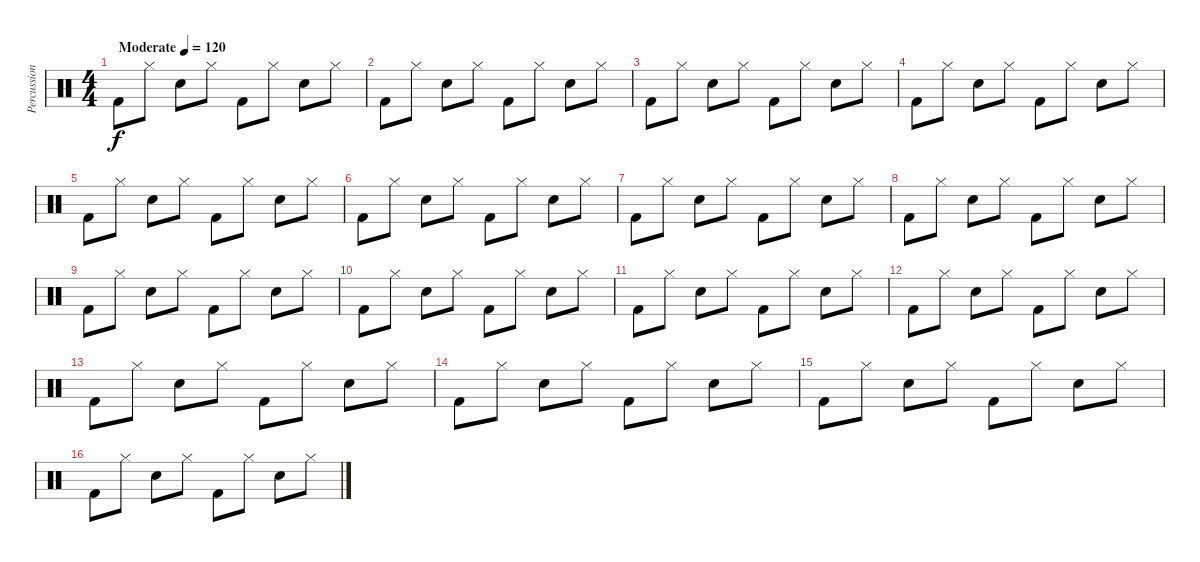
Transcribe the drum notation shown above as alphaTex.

\track ("Percussion" "Percussion") {instrument percussion}
\staff {score}
\articulation defaults
\ts (4 4)
\tempo (120 "Moderate")
\clef neutral
\ks c "Kick (hit) 2".8{dy f} "Hi-Hat (closed)".8 "Snare (hit) 2".8 "Hi-Hat (closed)".8 "Kick (hit) 2".8 "Hi-Hat (closed)".8 "Snare (hit) 2".8 "Hi-Hat (closed)".8
|
"Kick (hit) 2".8 "Hi-Hat (closed)".8 "Snare (hit) 2".8 "Hi-Hat (closed)".8 "Kick (hit) 2".8 "Hi-Hat (closed)".8 "Snare (hit) 2".8 "Hi-Hat (closed)".8 |
"Kick (hit) 2".8 "Hi-Hat (closed)".8 "Snare (hit) 2".8 "Hi-Hat (closed)".8 "Kick (hit) 2".8 "Hi-Hat (closed)".8 "Snare (hit) 2".8 "Hi-Hat (closed)".8 |
"Kick (hit) 2".8 "Hi-Hat (closed)".8 "Snare (hit) 2".8 "Hi-Hat (closed)".8 "Kick (hit) 2".8 "Hi-Hat (closed)".8 "Snare (hit) 2".8 "Hi-Hat (closed)".8 |
"Kick (hit) 2".8 "Hi-Hat (closed)".8 "Snare (hit) 2".8 "Hi-Hat (closed)".8 "Kick (hit) 2".8 "Hi-Hat (closed)".8 "Snare (hit) 2".8 "Hi-Hat (closed)".8 |
"Kick (hit) 2".8 "Hi-Hat (closed)".8 "Snare (hit) 2".8 "Hi-Hat (closed)".8 "Kick (hit) 2".8 "Hi-Hat (closed)".8 "Snare (hit) 2".8 "Hi-Hat (closed)".8 |
"Kick (hit) 2".8 "Hi-Hat (closed)".8 "Snare (hit) 2".8 "Hi-Hat (closed)".8 "Kick (hit) 2".8 "Hi-Hat (closed)".8 "Snare (hit) 2".8 "Hi-Hat (closed)".8 |
"Kick (hit) 2".8 "Hi-Hat (closed)".8 "Snare (hit) 2".8 "Hi-Hat (closed)".8 "Kick (hit) 2".8 "Hi-Hat (closed)".8 "Snare (hit) 2".8 "Hi-Hat (closed)".8 |
"Kick (hit) 2".8 "Hi-Hat (closed)".8 "Snare (hit) 2".8 "Hi-Hat (closed)".8 "Kick (hit) 2".8 "Hi-Hat (closed)".8 "Snare (hit) 2".8 "Hi-Hat (closed)".8 |
"Kick (hit) 2".8 "Hi-Hat (closed)".8 "Snare (hit) 2".8 "Hi-Hat (closed)".8 "Kick (hit) 2".8 "Hi-Hat (closed)".8 "Snare (hit) 2".8 "Hi-Hat (closed)".8 |
"Kick (hit) 2".8 "Hi-Hat (closed)".8 "Snare (hit) 2".8 "Hi-Hat (closed)".8 "Kick (hit) 2".8 "Hi-Hat (closed)".8 "Snare (hit) 2".8 "Hi-Hat (closed)".8 |
"Kick (hit) 2".8 "Hi-Hat (closed)".8 "Snare (hit) 2".8 "Hi-Hat (closed)".8 "Kick (hit) 2".8 "Hi-Hat (closed)".8 "Snare (hit) 2".8 "Hi-Hat (closed)".8 |
"Kick (hit) 2".8 "Hi-Hat (closed)".8 "Snare (hit) 2".8 "Hi-Hat (closed)".8 "Kick (hit) 2".8 "Hi-Hat (closed)".8 "Snare (hit) 2".8 "Hi-Hat (closed)".8 |
"Kick (hit) 2".8 "Hi-Hat (closed)".8 "Snare (hit) 2".8 "Hi-Hat (closed)".8 "Kick (hit) 2".8 "Hi-Hat (closed)".8 "Snare (hit) 2".8 "Hi-Hat (closed)".8 |
"Kick (hit) 2".8 "Hi-Hat (closed)".8 "Snare (hit) 2".8 "Hi-Hat (closed)".8 "Kick (hit) 2".8 "Hi-Hat (closed)".8 "Snare (hit) 2".8 "Hi-Hat (closed)".8 |
"Kick (hit) 2".8 "Hi-Hat (closed)".8 "Snare (hit) 2".8 "Hi-Hat (closed)".8 "Kick (hit) 2".8 "Hi-Hat (closed)".8 "Snare (hit) 2".8 "Hi-Hat (closed)".8
